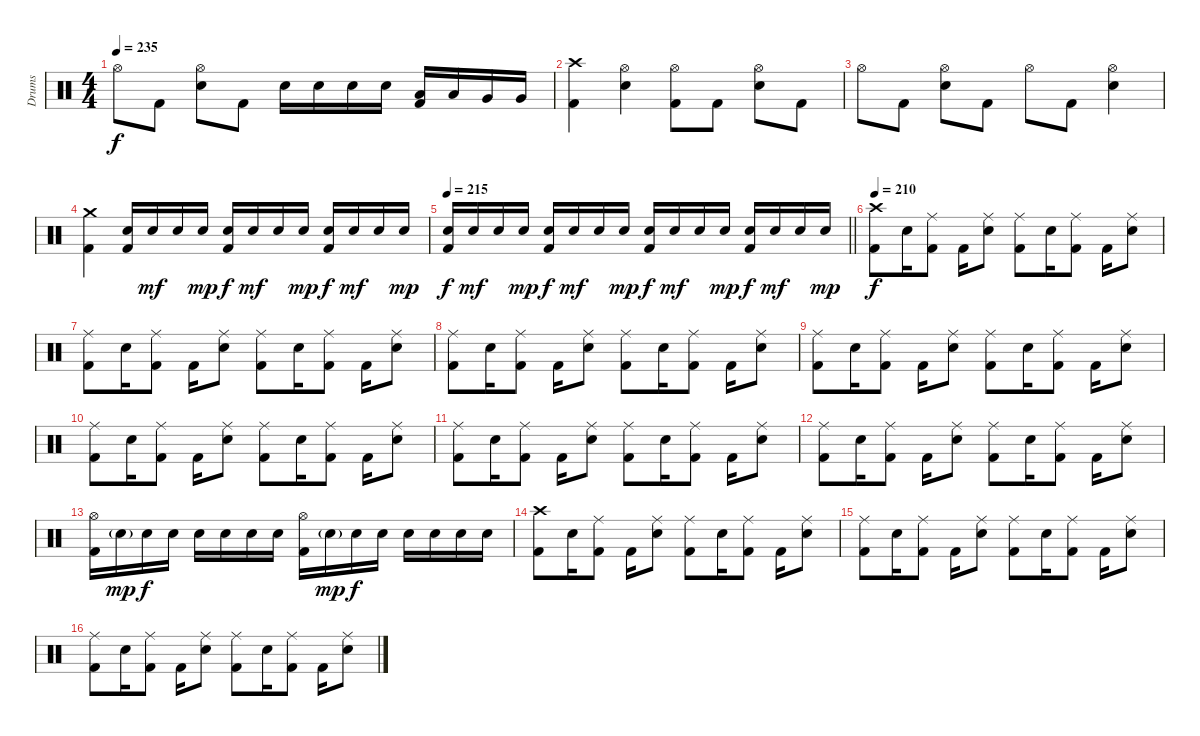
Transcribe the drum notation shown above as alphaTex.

\track ("Drums" "Drums") {instrument percussion}
\staff {score}
\articulation defaults
\ts (4 4)
\tempo 235
\clef neutral
\ks c "Hi-Hat (open)".8{dy f} "Kick (hit) 2".8
("Hi-Hat (open)" "Electric Snare (hit)").8 "Kick (hit) 2".8 "Electric Snare (hit)".16 "Electric Snare (hit)".16 "Electric Snare (hit)".16 "Electric Snare (hit)".16 ("Low Tom (hit)" "Kick (hit) 2").16 "Low Tom (hit)".16 "Very Low Tom (hit)".16 "Very Low Tom (hit)".16 |
("Crash high (hit)" "Kick (hit) 2").4 ("Hi-Hat (open)" "Electric Snare (hit)").4 ("Hi-Hat (open)" "Kick (hit) 2").8 "Kick (hit) 2".8 ("Hi-Hat (open)" "Electric Snare (hit)").8 "Kick (hit) 2".8 |
"Hi-Hat (open)".8 "Kick (hit) 2".8 ("Hi-Hat (open)" "Electric Snare (hit)").8 "Kick (hit) 2".8 "Hi-Hat (open)".8 "Kick (hit) 2".8 ("Hi-Hat (open)" "Electric Snare (hit)").4 |
("Crash medium (hit)" "Kick (hit) 2").4 ("Electric Snare (hit)" "Kick (hit) 2").16 "Electric Snare (hit)".16{dy mf} "Electric Snare (hit)".16 "Electric Snare (hit)".16{dy mp} ("Electric Snare (hit)" "Kick (hit) 2").16{dy f} "Electric Snare (hit)".16{dy mf} "Electric Snare (hit)".16 "Electric Snare (hit)".16{dy mp} ("Electric Snare (hit)" "Kick (hit) 2").16{dy f} "Electric Snare (hit)".16{dy mf} "Electric Snare (hit)".16 "Electric Snare (hit)".16{dy mp} |
\tempo 215
\barLineRight lightlight
("Electric Snare (hit)" "Kick (hit) 2").16{dy f} "Electric Snare (hit)".16{dy mf} "Electric Snare (hit)".16 "Electric Snare (hit)".16{dy mp} ("Electric Snare (hit)" "Kick (hit) 2").16{dy f} "Electric Snare (hit)".16{dy mf} "Electric Snare (hit)".16 "Electric Snare (hit)".16{dy mp} ("Electric Snare (hit)" "Kick (hit) 2").16{dy f} "Electric Snare (hit)".16{dy mf} "Electric Snare (hit)".16 "Electric Snare (hit)".16{dy mp} ("Electric Snare (hit)" "Kick (hit) 2").16{dy f} "Electric Snare (hit)".16{dy mf} "Electric Snare (hit)".16 "Electric Snare (hit)".16{dy mp} |
\section ("" "")
\tempo 210
("Crash high (hit)" "Kick (hit) 2").8{dy f} "Electric Snare (hit)".16 ("Ride (middle)" "Kick (hit) 2").8 "Kick (hit) 2".16 ("Ride (middle)" "Electric Snare (hit)").8 ("Ride (middle)" "Kick (hit) 2").8 "Electric Snare (hit)".16 ("Ride (middle)" "Kick (hit) 2").8 "Kick (hit) 2".16 ("Ride (middle)" "Electric Snare (hit)").8 |
("Ride (middle)" "Kick (hit) 2").8 "Electric Snare (hit)".16 ("Ride (middle)" "Kick (hit) 2").8 "Kick (hit) 2".16 ("Ride (middle)" "Electric Snare (hit)").8 ("Ride (middle)" "Kick (hit) 2").8 "Electric Snare (hit)".16 ("Ride (middle)" "Kick (hit) 2").8 "Kick (hit) 2".16 ("Ride (middle)" "Electric Snare (hit)").8 |
("Ride (middle)" "Kick (hit) 2").8 "Electric Snare (hit)".16 ("Ride (middle)" "Kick (hit) 2").8 "Kick (hit) 2".16 ("Ride (middle)" "Electric Snare (hit)").8 ("Ride (middle)" "Kick (hit) 2").8 "Electric Snare (hit)".16 ("Ride (middle)" "Kick (hit) 2").8 "Kick (hit) 2".16 ("Ride (middle)" "Electric Snare (hit)").8 |
("Ride (middle)" "Kick (hit) 2").8 "Electric Snare (hit)".16 ("Ride (middle)" "Kick (hit) 2").8 "Kick (hit) 2".16 ("Ride (middle)" "Electric Snare (hit)").8 ("Ride (middle)" "Kick (hit) 2").8 "Electric Snare (hit)".16 ("Ride (middle)" "Kick (hit) 2").8 "Kick (hit) 2".16 ("Ride (middle)" "Electric Snare (hit)").8 |
("Ride (middle)" "Kick (hit) 2").8 "Electric Snare (hit)".16 ("Ride (middle)" "Kick (hit) 2").8 "Kick (hit) 2".16 ("Ride (middle)" "Electric Snare (hit)").8 ("Ride (middle)" "Kick (hit) 2").8 "Electric Snare (hit)".16 ("Ride (middle)" "Kick (hit) 2").8 "Kick (hit) 2".16 ("Ride (middle)" "Electric Snare (hit)").8 |
("Ride (middle)" "Kick (hit) 2").8 "Electric Snare (hit)".16 ("Ride (middle)" "Kick (hit) 2").8 "Kick (hit) 2".16 ("Ride (middle)" "Electric Snare (hit)").8 ("Ride (middle)" "Kick (hit) 2").8 "Electric Snare (hit)".16 ("Ride (middle)" "Kick (hit) 2").8 "Kick (hit) 2".16 ("Ride (middle)" "Electric Snare (hit)").8 |
("Ride (middle)" "Kick (hit) 2").8 "Electric Snare (hit)".16 ("Ride (middle)" "Kick (hit) 2").8 "Kick (hit) 2".16 ("Ride (middle)" "Electric Snare (hit)").8 ("Ride (middle)" "Kick (hit) 2").8 "Electric Snare (hit)".16 ("Ride (middle)" "Kick (hit) 2").8 "Kick (hit) 2".16 ("Ride (middle)" "Electric Snare (hit)").8 |
("Hi-Hat (open)" "Kick (hit) 2").16 "Electric Snare (hit)"{g}.16{dy mp} "Electric Snare (hit)".16{dy f} "Electric Snare (hit)".16 "Electric Snare (hit)".16 "Electric Snare (hit)".16 "Electric Snare (hit)".16 "Electric Snare (hit)".16 ("Hi-Hat (open)" "Kick (hit) 2").16 "Electric Snare (hit)"{g}.16{dy mp} "Electric Snare (hit)".16{dy f} "Electric Snare (hit)".16 "Electric Snare (hit)".16 "Electric Snare (hit)".16 "Electric Snare (hit)".16 "Electric Snare (hit)".16 |
("Crash high (hit)" "Kick (hit) 2").8 "Electric Snare (hit)".16 ("Ride (middle)" "Kick (hit) 2").8 "Kick (hit) 2".16 ("Ride (middle)" "Electric Snare (hit)").8 ("Ride (middle)" "Kick (hit) 2").8 "Electric Snare (hit)".16 ("Ride (middle)" "Kick (hit) 2").8 "Kick (hit) 2".16 ("Ride (middle)" "Electric Snare (hit)").8 |
("Ride (middle)" "Kick (hit) 2").8 "Electric Snare (hit)".16 ("Ride (middle)" "Kick (hit) 2").8 "Kick (hit) 2".16 ("Ride (middle)" "Electric Snare (hit)").8 ("Ride (middle)" "Kick (hit) 2").8 "Electric Snare (hit)".16 ("Ride (middle)" "Kick (hit) 2").8 "Kick (hit) 2".16 ("Ride (middle)" "Electric Snare (hit)").8 |
("Ride (middle)" "Kick (hit) 2").8 "Electric Snare (hit)".16 ("Ride (middle)" "Kick (hit) 2").8 "Kick (hit) 2".16 ("Ride (middle)" "Electric Snare (hit)").8 ("Ride (middle)" "Kick (hit) 2").8 "Electric Snare (hit)".16 ("Ride (middle)" "Kick (hit) 2").8 "Kick (hit) 2".16 ("Ride (middle)" "Electric Snare (hit)").8
